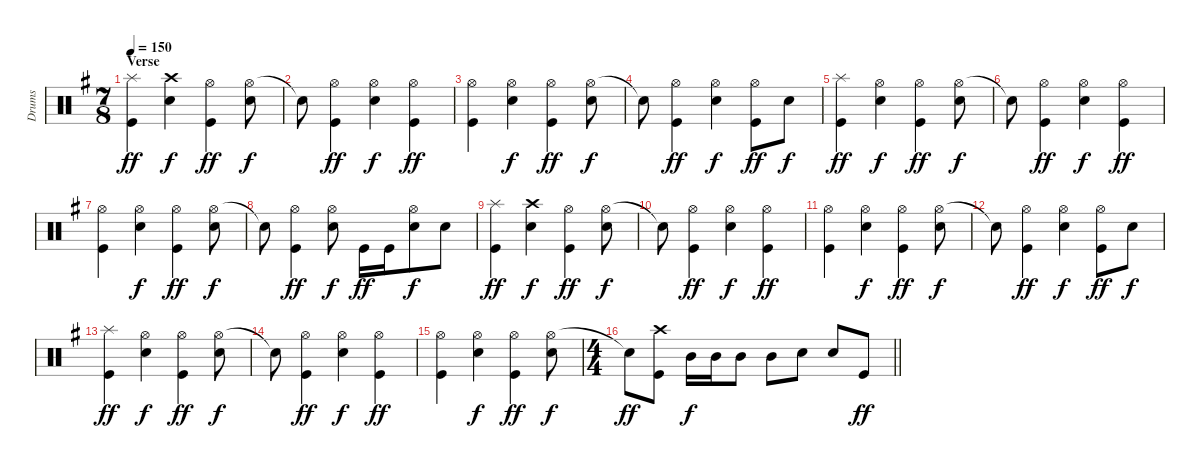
\track ("Drums" "Drums") {instrument percussion}
\staff {score}
\articulation defaults
\ts (7 8)
\section ("" "Verse")
\tempo 150
\clef neutral
\ks g
("Splash (hit)" "Kick (hit)").4{dy ff} ("Crash high (hit)" "Electric Snare (hit)").4{dy f} ("Hi-Hat (open)" "Kick (hit)").4{dy ff} ("Hi-Hat (open)" "Electric Snare (hit)").8{dy f} |
"Snare (hit)"{t}.8 ("Hi-Hat (open)" "Kick (hit)").4{dy ff} ("Hi-Hat (open)" "Electric Snare (hit)").4{dy f} ("Hi-Hat (open)" "Kick (hit)").4{dy ff} |
("Hi-Hat (open)" "Kick (hit)").4 ("Hi-Hat (open)" "Electric Snare (hit)").4{dy f} ("Hi-Hat (open)" "Kick (hit)").4{dy ff} ("Hi-Hat (open)" "Electric Snare (hit)").8{dy f} |
"Snare (hit)"{t}.8 ("Hi-Hat (open)" "Kick (hit)").4{dy ff} ("Hi-Hat (open)" "Electric Snare (hit)").4{dy f} ("Hi-Hat (open)" "Kick (hit)").8{dy ff} "Electric Snare (hit)".8{dy f} |
("Splash (hit)" "Kick (hit)").4{dy ff} ("Hi-Hat (open)" "Electric Snare (hit)").4{dy f} ("Hi-Hat (open)" "Kick (hit)").4{dy ff} ("Hi-Hat (open)" "Electric Snare (hit)").8{dy f} |
"Snare (hit)"{t}.8 ("Hi-Hat (open)" "Kick (hit)").4{dy ff} ("Hi-Hat (open)" "Electric Snare (hit)").4{dy f} ("Hi-Hat (open)" "Kick (hit)").4{dy ff} |
("Hi-Hat (open)" "Kick (hit)").4 ("Hi-Hat (open)" "Electric Snare (hit)").4{dy f} ("Hi-Hat (open)" "Kick (hit)").4{dy ff} ("Hi-Hat (open)" "Electric Snare (hit)").8{dy f} |
"Snare (hit)"{t}.8 ("Hi-Hat (open)" "Kick (hit)").4{dy ff} ("Hi-Hat (open)" "Electric Snare (hit)").8{dy f} "Kick (hit)".16{dy ff} "Kick (hit)".16 ("Hi-Hat (open)" "Electric Snare (hit)").8{dy f} "Electric Snare (hit)".8 |
("Splash (hit)" "Kick (hit)").4{dy ff} ("Crash high (hit)" "Electric Snare (hit)").4{dy f} ("Hi-Hat (open)" "Kick (hit)").4{dy ff} ("Hi-Hat (open)" "Electric Snare (hit)").8{dy f} |
"Snare (hit)"{t}.8 ("Hi-Hat (open)" "Kick (hit)").4{dy ff} ("Hi-Hat (open)" "Electric Snare (hit)").4{dy f} ("Hi-Hat (open)" "Kick (hit)").4{dy ff} |
("Hi-Hat (open)" "Kick (hit)").4 ("Hi-Hat (open)" "Electric Snare (hit)").4{dy f} ("Hi-Hat (open)" "Kick (hit)").4{dy ff} ("Hi-Hat (open)" "Electric Snare (hit)").8{dy f} |
"Snare (hit)"{t}.8 ("Hi-Hat (open)" "Kick (hit)").4{dy ff} ("Hi-Hat (open)" "Electric Snare (hit)").4{dy f} ("Hi-Hat (open)" "Kick (hit)").8{dy ff} "Electric Snare (hit)".8{dy f} |
("Splash (hit)" "Kick (hit)").4{dy ff} ("Hi-Hat (open)" "Electric Snare (hit)").4{dy f} ("Hi-Hat (open)" "Kick (hit)").4{dy ff} ("Hi-Hat (open)" "Electric Snare (hit)").8{dy f} |
"Snare (hit)"{t}.8 ("Hi-Hat (open)" "Kick (hit)").4{dy ff} ("Hi-Hat (open)" "Electric Snare (hit)").4{dy f} ("Hi-Hat (open)" "Kick (hit)").4{dy ff} |
("Hi-Hat (open)" "Kick (hit)").4 ("Hi-Hat (open)" "Electric Snare (hit)").4{dy f} ("Hi-Hat (open)" "Kick (hit)").4{dy ff} ("Hi-Hat (open)" "Electric Snare (hit)").8{dy f} |
\ts (4 4)
\barLineRight lightlight "Snare (hit)"{t}.8{dy ff}
("Crash high (hit)" "Kick (hit)").8 "Mid Tom (hit)".16{dy f} "Mid Tom (hit)".16 "Mid Tom (hit)".8 "Mid Tom (hit)".8 "Electric Snare (hit)".8 "Electric Snare (hit)".8 "Kick (hit)".8{dy ff}
